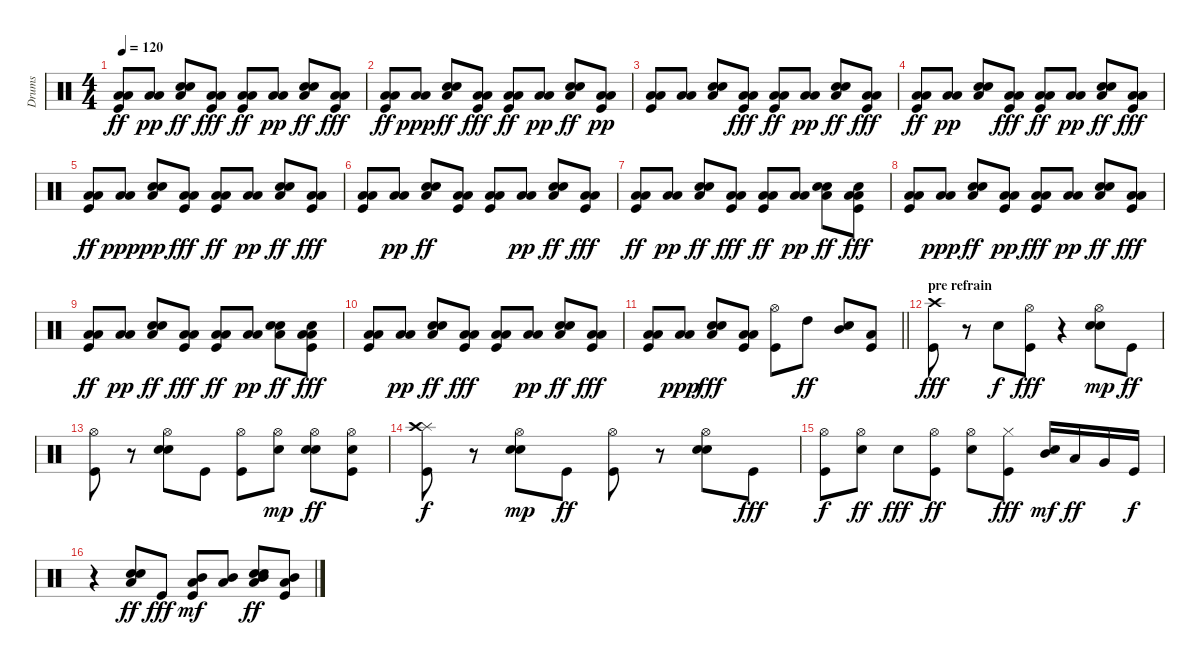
\track ("Drums" "Drums") {instrument percussion}
\staff {score}
\articulation defaults
\ts (4 4)
\tempo 120
\clef neutral
\ks c
("Low Tom (hit)" "Low Floor Tom (hit)" "Kick (hit)").8{dy ff} ("Low Tom (hit)" "Low Floor Tom (hit)").8{dy pp} ("Low Floor Tom (hit)" "Hand Clap (hit)" "Snare (hit) 2").8{dy ff} ("Low Tom (hit)" "Low Floor Tom (hit)" "Kick (hit)").8{dy fff} ("Low Tom (hit)" "Low Floor Tom (hit)" "Kick (hit)").8{dy ff} ("Low Floor Tom (hit)" "Low Tom (hit)").8{dy pp} ("Low Floor Tom (hit)" "Hand Clap (hit)" "Snare (hit) 2").8{dy ff} ("Low Tom (hit)" "Low Floor Tom (hit)" "Kick (hit)").8{dy fff} |
("Low Tom (hit)" "Low Floor Tom (hit)" "Kick (hit)").8{dy ff} ("Low Floor Tom (hit)" "Low Tom (hit)").8{dy ppp} ("Snare (hit) 2" "Low Floor Tom (hit)" "Hand Clap (hit)").8{dy ff} ("Low Tom (hit)" "Low Floor Tom (hit)" "Kick (hit)").8{dy fff} ("Low Tom (hit)" "Low Floor Tom (hit)" "Kick (hit)").8{dy ff} ("Low Tom (hit)" "Low Floor Tom (hit)").8{dy pp} ("Snare (hit) 2" "Low Floor Tom (hit)" "Hand Clap (hit)").8{dy ff} ("Kick (hit)" "Low Tom (hit)" "Low Floor Tom (hit)").8{dy pp} |
("Kick (hit)" "Low Tom (hit)" "Low Floor Tom (hit)").8 ("Low Tom (hit)" "Low Floor Tom (hit)").8 ("Hand Clap (hit)" "Snare (hit) 2" "Low Floor Tom (hit)").8 ("Low Tom (hit)" "Low Floor Tom (hit)" "Kick (hit)").8{dy fff} ("Low Tom (hit)" "Low Floor Tom (hit)" "Kick (hit)").8{dy ff} ("Low Tom (hit)" "Low Floor Tom (hit)").8{dy pp} ("Low Floor Tom (hit)" "Hand Clap (hit)" "Snare (hit) 2").8{dy ff} ("Low Tom (hit)" "Low Floor Tom (hit)" "Kick (hit)").8{dy fff} |
("Low Tom (hit)" "Low Floor Tom (hit)" "Kick (hit)").8{dy ff} ("Low Tom (hit)" "Low Floor Tom (hit)").8{dy pp} ("Hand Clap (hit)" "Snare (hit) 2" "Low Floor Tom (hit)").8 ("Low Tom (hit)" "Low Floor Tom (hit)" "Kick (hit)").8{dy fff} ("Low Tom (hit)" "Low Floor Tom (hit)" "Kick (hit)").8{dy ff} ("Low Floor Tom (hit)" "Low Tom (hit)").8{dy pp} ("Low Floor Tom (hit)" "Hand Clap (hit)" "Snare (hit) 2").8{dy ff} ("Low Tom (hit)" "Low Floor Tom (hit)" "Kick (hit)").8{dy fff} |
("Low Tom (hit)" "Low Floor Tom (hit)" "Kick (hit)").8{dy ff} ("Low Floor Tom (hit)" "Low Tom (hit)").8{dy ppp} ("Hand Clap (hit)" "Snare (hit) 2" "Low Floor Tom (hit)").8{dy pp} ("Low Tom (hit)" "Low Floor Tom (hit)" "Kick (hit)").8{dy fff} ("Low Tom (hit)" "Low Floor Tom (hit)" "Kick (hit)").8{dy ff} ("Low Tom (hit)" "Low Floor Tom (hit)").8{dy pp} ("Low Floor Tom (hit)" "Hand Clap (hit)" "Snare (hit) 2").8{dy ff} ("Low Tom (hit)" "Low Floor Tom (hit)" "Kick (hit)").8{dy fff} |
("Low Tom (hit)" "Low Floor Tom (hit)" "Kick (hit)").8 ("Low Tom (hit)" "Low Floor Tom (hit)").8{dy pp} ("Snare (hit) 2" "Low Floor Tom (hit)" "Hand Clap (hit)").8{dy ff} ("Low Tom (hit)" "Low Floor Tom (hit)" "Kick (hit)").8 ("Low Tom (hit)" "Low Floor Tom (hit)" "Kick (hit)").8 ("Low Tom (hit)" "Low Floor Tom (hit)").8{dy pp} ("Low Floor Tom (hit)" "Hand Clap (hit)" "Snare (hit) 2").8{dy ff} ("Low Tom (hit)" "Low Floor Tom (hit)" "Kick (hit)").8{dy fff} |
("Low Tom (hit)" "Low Floor Tom (hit)" "Kick (hit)").8{dy ff} ("Low Tom (hit)" "Low Floor Tom (hit)").8{dy pp} ("Snare (hit) 2" "Low Floor Tom (hit)" "Hand Clap (hit)").8{dy ff} ("Low Tom (hit)" "Low Floor Tom (hit)" "Kick (hit)").8{dy fff} ("Low Tom (hit)" "Low Floor Tom (hit)" "Kick (hit)").8{dy ff} ("Low Floor Tom (hit)" "Low Tom (hit)").8{dy pp} ("Low Floor Tom (hit)" "Hand Clap (hit)" "Snare (hit) 2").8{dy ff} ("Snare (hit) 2" "Low Tom (hit)" "Low Floor Tom (hit)" "Kick (hit)").8{dy fff} |
("Low Tom (hit)" "Low Floor Tom (hit)" "Kick (hit)").8 ("Low Floor Tom (hit)" "Low Tom (hit)").8{dy ppp} ("Snare (hit) 2" "Low Floor Tom (hit)" "Hand Clap (hit)").8{dy ff} ("Kick (hit)" "Low Tom (hit)" "Low Floor Tom (hit)").8{dy pp} ("Low Tom (hit)" "Low Floor Tom (hit)" "Kick (hit)").8{dy fff} ("Low Tom (hit)" "Low Floor Tom (hit)").8{dy pp} ("Snare (hit) 2" "Low Floor Tom (hit)" "Hand Clap (hit)").8{dy ff} ("Low Tom (hit)" "Low Floor Tom (hit)" "Kick (hit)").8{dy fff} |
("Low Tom (hit)" "Low Floor Tom (hit)" "Kick (hit)").8{dy ff} ("Low Tom (hit)" "Low Floor Tom (hit)").8{dy pp} ("Snare (hit) 2" "Low Floor Tom (hit)" "Hand Clap (hit)").8{dy ff} ("Low Tom (hit)" "Low Floor Tom (hit)" "Kick (hit)").8{dy fff} ("Low Tom (hit)" "Low Floor Tom (hit)" "Kick (hit)").8{dy ff} ("Low Tom (hit)" "Low Floor Tom (hit)").8{dy pp} ("Low Floor Tom (hit)" "Hand Clap (hit)" "Snare (hit) 2").8{dy ff} ("Snare (hit) 2" "Low Tom (hit)" "Low Floor Tom (hit)" "Kick (hit)").8{dy fff} |
("Low Tom (hit)" "Low Floor Tom (hit)" "Kick (hit)").8 ("Low Tom (hit)" "Low Floor Tom (hit)").8{dy pp} ("Snare (hit) 2" "Low Floor Tom (hit)" "Hand Clap (hit)").8{dy ff} ("Low Tom (hit)" "Low Floor Tom (hit)" "Kick (hit)").8{dy fff} ("Low Tom (hit)" "Low Floor Tom (hit)" "Kick (hit)").8 ("Low Floor Tom (hit)" "Low Tom (hit)").8{dy pp} ("Snare (hit) 2" "Low Floor Tom (hit)" "Hand Clap (hit)").8{dy ff} ("Low Tom (hit)" "Low Floor Tom (hit)" "Kick (hit)").8{dy fff} |
\barLineRight lightlight
("Low Tom (hit)" "Low Floor Tom (hit)" "Kick (hit)").8 ("Low Floor Tom (hit)" "Low Tom (hit)").8{dy ppp} ("Snare (hit) 2" "Low Floor Tom (hit)" "Hand Clap (hit)").8{dy fff} ("Low Tom (hit)" "Low Floor Tom (hit)" "Kick (hit)").8 ("Hi-Hat (open)" "Kick (hit)").8 "High Tom (hit)".8{dy ff} ("Mid Tom (hit)" "Hand Clap (hit)").8 ("Low Tom (hit)" "Kick (hit)").8 |
\section ("" "pre refrain")
("Kick (hit)" "Crash high (hit)").8{dy fff} r.8 "Snare (hit) 2".8{dy f} ("Hi-Hat (open)" "Kick (hit)").8{dy fff} r.4 ("Snare (hit) 2" "Hand Clap (hit)" "Hi-Hat (open)").8{dy mp} "Kick (hit)".8{dy ff} |
("Hi-Hat (open)" "Kick (hit)").8 r.8 ("Snare (hit) 2" "Hi-Hat (open)" "Hand Clap (hit)").8 "Kick (hit)".8 ("Hi-Hat (open)" "Kick (hit)").8 ("Snare (hit) 2" "Hi-Hat (open)").8{dy mp} ("Snare (hit) 2" "Hi-Hat (open)" "Hand Clap (hit)").8{dy ff} ("Hi-Hat (open)" "Kick (hit)" "Snare (hit) 2").8 |
("Splash (hit)" "Crash high (hit)" "Kick (hit)").8{dy f} r.8 ("Hand Clap (hit)" "Snare (hit) 2" "Hi-Hat (open)").8{dy mp} "Kick (hit)".8{dy ff} ("Hi-Hat (open)" "Kick (hit)").8 r.8 ("Hi-Hat (open)" "Hand Clap (hit)" "Snare (hit) 2").8 "Kick (hit)".8{dy fff} |
("Hi-Hat (open)" "Kick (hit)").8{dy f} ("Hi-Hat (open)" "Hand Clap (hit)").8{dy ff} "Snare (hit) 2".8{dy fff} ("Hi-Hat (open)" "Kick (hit)").8{dy ff} ("Hi-Hat (open)" "Hand Clap (hit)").8 ("Hi-Hat (closed)" "Kick (hit)").8{dy fff} ("Mid Tom (hit)" "Snare (hit) 2").16{dy mf} "Low Tom (hit)".16{dy ff} "Very Low Tom (hit)".16 "Kick (hit)".16{dy f} |
r.4 ("Hand Clap (hit)" "Snare (hit) 2" "Low Tom (hit)").8{dy ff} "Kick (hit)".8{dy fff} ("Kick (hit)" "Mid Tom (hit)" "Low Tom (hit)").8{dy mf} ("Low Tom (hit)" "Mid Tom (hit)").8 ("Hand Clap (hit)" "Snare (hit) 2" "Mid Tom (hit)" "Low Tom (hit)").8{dy ff} ("Kick (hit)" "Low Tom (hit)" "Mid Tom (hit)").8
